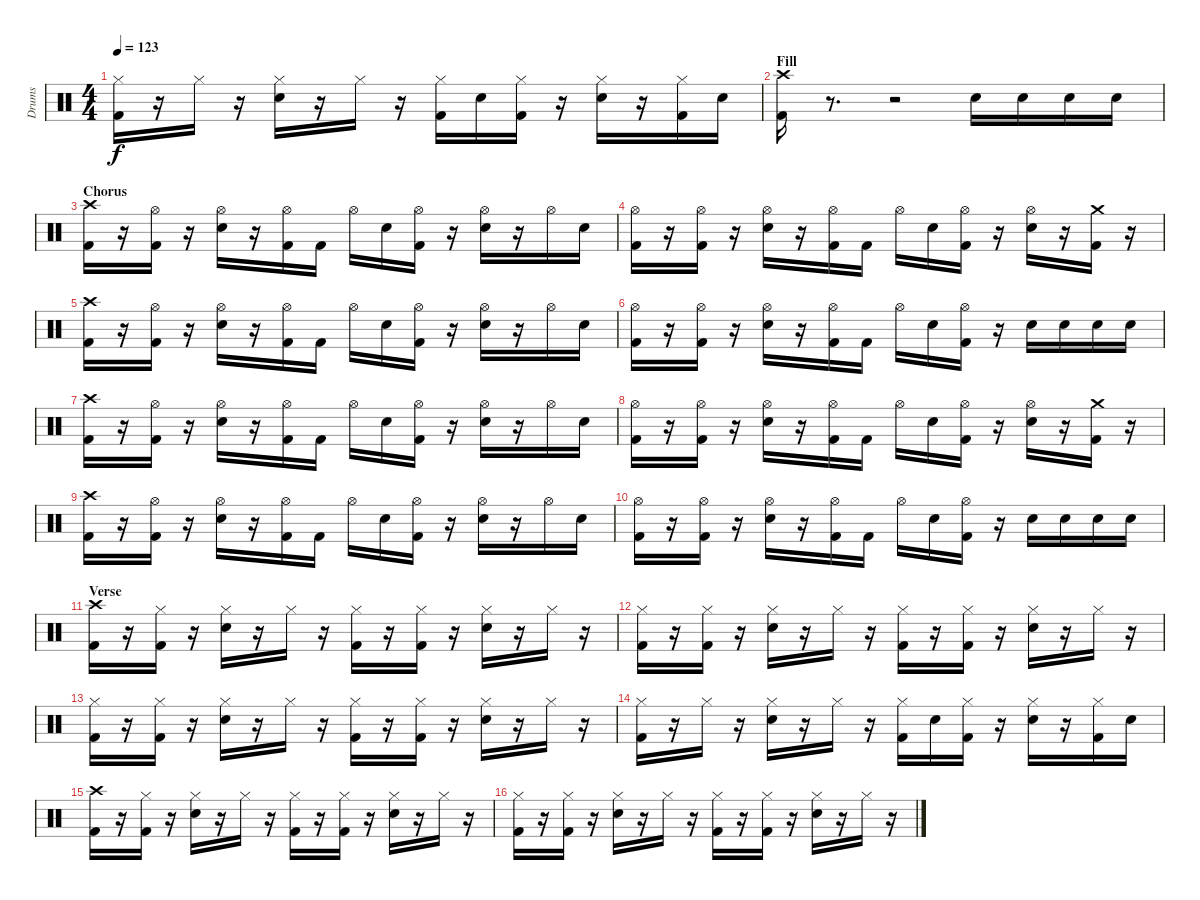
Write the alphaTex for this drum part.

\track ("Drums" "Drums") {instrument percussion}
\staff {score}
\articulation defaults
\ts (4 4)
\tempo 123
\clef neutral
\ks c
("Hi-Hat (closed)" "Kick (hit) 2").16{dy f} r.16 "Hi-Hat (closed)".16 r.16 ("Hi-Hat (closed)" "Electric Snare (hit)").16 r.16 "Hi-Hat (closed)".16 r.16 ("Hi-Hat (closed)" "Kick (hit) 2").16 "Electric Snare (hit)".16 ("Hi-Hat (closed)" "Kick (hit) 2").16 r.16 ("Hi-Hat (closed)" "Electric Snare (hit)").16 r.16 ("Hi-Hat (closed)" "Kick (hit) 2").16 "Electric Snare (hit)".16 |
\section ("" "Fill")
("Crash high (hit)" "Kick (hit) 2").16 r.8{d volume 0} r.2 "Electric Snare (hit)".16{volume 15} "Electric Snare (hit)".16 "Electric Snare (hit)".16 "Electric Snare (hit)".16 |
\section ("" "Chorus")
("Crash high (hit)" "Kick (hit) 2").16 r.16 ("Hi-Hat (open)" "Kick (hit) 2").16 r.16 ("Hi-Hat (open)" "Electric Snare (hit)").16 r.16 ("Hi-Hat (open)" "Kick (hit) 2").16 "Kick (hit) 2".16 "Hi-Hat (open)".16 "Electric Snare (hit)".16 ("Hi-Hat (open)" "Kick (hit) 2").16 r.16 ("Hi-Hat (open)" "Electric Snare (hit)").16 r.16 "Hi-Hat (open)".16 "Electric Snare (hit)".16 |
("Hi-Hat (open)" "Kick (hit) 2").16 r.16 ("Hi-Hat (open)" "Kick (hit) 2").16 r.16 ("Hi-Hat (open)" "Electric Snare (hit)").16 r.16 ("Hi-Hat (open)" "Kick (hit) 2").16 "Kick (hit) 2".16 "Hi-Hat (open)".16 "Electric Snare (hit)".16 ("Hi-Hat (open)" "Kick (hit) 2").16 r.16 ("Hi-Hat (open)" "Electric Snare (hit)").16 r.16 ("Crash medium (hit)" "Kick (hit) 2").16 r.16 |
("Crash high (hit)" "Kick (hit) 2").16 r.16 ("Hi-Hat (open)" "Kick (hit) 2").16 r.16 ("Hi-Hat (open)" "Electric Snare (hit)").16 r.16 ("Hi-Hat (open)" "Kick (hit) 2").16 "Kick (hit) 2".16 "Hi-Hat (open)".16 "Electric Snare (hit)".16 ("Hi-Hat (open)" "Kick (hit) 2").16 r.16 ("Hi-Hat (open)" "Electric Snare (hit)").16 r.16 "Hi-Hat (open)".16 "Electric Snare (hit)".16 |
("Hi-Hat (open)" "Kick (hit) 2").16 r.16 ("Hi-Hat (open)" "Kick (hit) 2").16 r.16 ("Hi-Hat (open)" "Electric Snare (hit)").16 r.16 ("Hi-Hat (open)" "Kick (hit) 2").16 "Kick (hit) 2".16 "Hi-Hat (open)".16 "Electric Snare (hit)".16 ("Hi-Hat (open)" "Kick (hit) 2").16 r.16 "Electric Snare (hit)".16 "Electric Snare (hit)".16 "Electric Snare (hit)".16 "Electric Snare (hit)".16 |
("Crash high (hit)" "Kick (hit) 2").16 r.16 ("Hi-Hat (open)" "Kick (hit) 2").16 r.16 ("Hi-Hat (open)" "Electric Snare (hit)").16 r.16 ("Hi-Hat (open)" "Kick (hit) 2").16 "Kick (hit) 2".16 "Hi-Hat (open)".16 "Electric Snare (hit)".16 ("Hi-Hat (open)" "Kick (hit) 2").16 r.16 ("Hi-Hat (open)" "Electric Snare (hit)").16 r.16 "Hi-Hat (open)".16 "Electric Snare (hit)".16 |
("Hi-Hat (open)" "Kick (hit) 2").16 r.16 ("Hi-Hat (open)" "Kick (hit) 2").16 r.16 ("Hi-Hat (open)" "Electric Snare (hit)").16 r.16 ("Hi-Hat (open)" "Kick (hit) 2").16 "Kick (hit) 2".16 "Hi-Hat (open)".16 "Electric Snare (hit)".16 ("Hi-Hat (open)" "Kick (hit) 2").16 r.16 ("Hi-Hat (open)" "Electric Snare (hit)").16 r.16 ("Crash medium (hit)" "Kick (hit) 2").16 r.16 |
("Crash high (hit)" "Kick (hit) 2").16 r.16 ("Hi-Hat (open)" "Kick (hit) 2").16 r.16 ("Hi-Hat (open)" "Electric Snare (hit)").16 r.16 ("Hi-Hat (open)" "Kick (hit) 2").16 "Kick (hit) 2".16 "Hi-Hat (open)".16 "Electric Snare (hit)".16 ("Hi-Hat (open)" "Kick (hit) 2").16 r.16 ("Hi-Hat (open)" "Electric Snare (hit)").16 r.16 "Hi-Hat (open)".16 "Electric Snare (hit)".16 |
("Hi-Hat (open)" "Kick (hit) 2").16 r.16 ("Hi-Hat (open)" "Kick (hit) 2").16 r.16 ("Hi-Hat (open)" "Electric Snare (hit)").16 r.16 ("Hi-Hat (open)" "Kick (hit) 2").16 "Kick (hit) 2".16 "Hi-Hat (open)".16 "Electric Snare (hit)".16 ("Hi-Hat (open)" "Kick (hit) 2").16 r.16 "Electric Snare (hit)".16 "Electric Snare (hit)".16 "Electric Snare (hit)".16 "Electric Snare (hit)".16 |
\section ("" "Verse")
("Crash high (hit)" "Kick (hit) 2").16 r.16 ("Hi-Hat (closed)" "Kick (hit) 2").16 r.16 ("Hi-Hat (closed)" "Electric Snare (hit)").16 r.16 "Hi-Hat (closed)".16 r.16 ("Hi-Hat (closed)" "Kick (hit) 2").16 r.16 ("Hi-Hat (closed)" "Kick (hit) 2").16 r.16 ("Hi-Hat (closed)" "Electric Snare (hit)").16 r.16 "Hi-Hat (closed)".16 r.16 |
("Hi-Hat (closed)" "Kick (hit) 2").16 r.16 ("Hi-Hat (closed)" "Kick (hit) 2").16 r.16 ("Hi-Hat (closed)" "Electric Snare (hit)").16 r.16 "Hi-Hat (closed)".16 r.16 ("Hi-Hat (closed)" "Kick (hit) 2").16 r.16 ("Hi-Hat (closed)" "Kick (hit) 2").16 r.16 ("Hi-Hat (closed)" "Electric Snare (hit)").16 r.16 "Hi-Hat (closed)".16 r.16 |
("Hi-Hat (closed)" "Kick (hit) 2").16 r.16 ("Hi-Hat (closed)" "Kick (hit) 2").16 r.16 ("Hi-Hat (closed)" "Electric Snare (hit)").16 r.16 "Hi-Hat (closed)".16 r.16 ("Hi-Hat (closed)" "Kick (hit) 2").16 r.16 ("Hi-Hat (closed)" "Kick (hit) 2").16 r.16 ("Hi-Hat (closed)" "Electric Snare (hit)").16 r.16 "Hi-Hat (closed)".16 r.16 |
("Hi-Hat (closed)" "Kick (hit) 2").16 r.16 "Hi-Hat (closed)".16 r.16 ("Hi-Hat (closed)" "Electric Snare (hit)").16 r.16 "Hi-Hat (closed)".16 r.16 ("Hi-Hat (closed)" "Kick (hit) 2").16 "Electric Snare (hit)".16 ("Hi-Hat (closed)" "Kick (hit) 2").16 r.16 ("Hi-Hat (closed)" "Electric Snare (hit)").16 r.16 ("Hi-Hat (closed)" "Kick (hit) 2").16 "Electric Snare (hit)".16 |
("Crash high (hit)" "Kick (hit) 2").16 r.16 ("Hi-Hat (closed)" "Kick (hit) 2").16 r.16 ("Hi-Hat (closed)" "Electric Snare (hit)").16 r.16 "Hi-Hat (closed)".16 r.16 ("Hi-Hat (closed)" "Kick (hit) 2").16 r.16 ("Hi-Hat (closed)" "Kick (hit) 2").16 r.16 ("Hi-Hat (closed)" "Electric Snare (hit)").16 r.16 "Hi-Hat (closed)".16 r.16 |
("Hi-Hat (closed)" "Kick (hit) 2").16 r.16 ("Hi-Hat (closed)" "Kick (hit) 2").16 r.16 ("Hi-Hat (closed)" "Electric Snare (hit)").16 r.16 "Hi-Hat (closed)".16 r.16 ("Hi-Hat (closed)" "Kick (hit) 2").16 r.16 ("Hi-Hat (closed)" "Kick (hit) 2").16 r.16 ("Hi-Hat (closed)" "Electric Snare (hit)").16 r.16 "Hi-Hat (closed)".16 r.16
